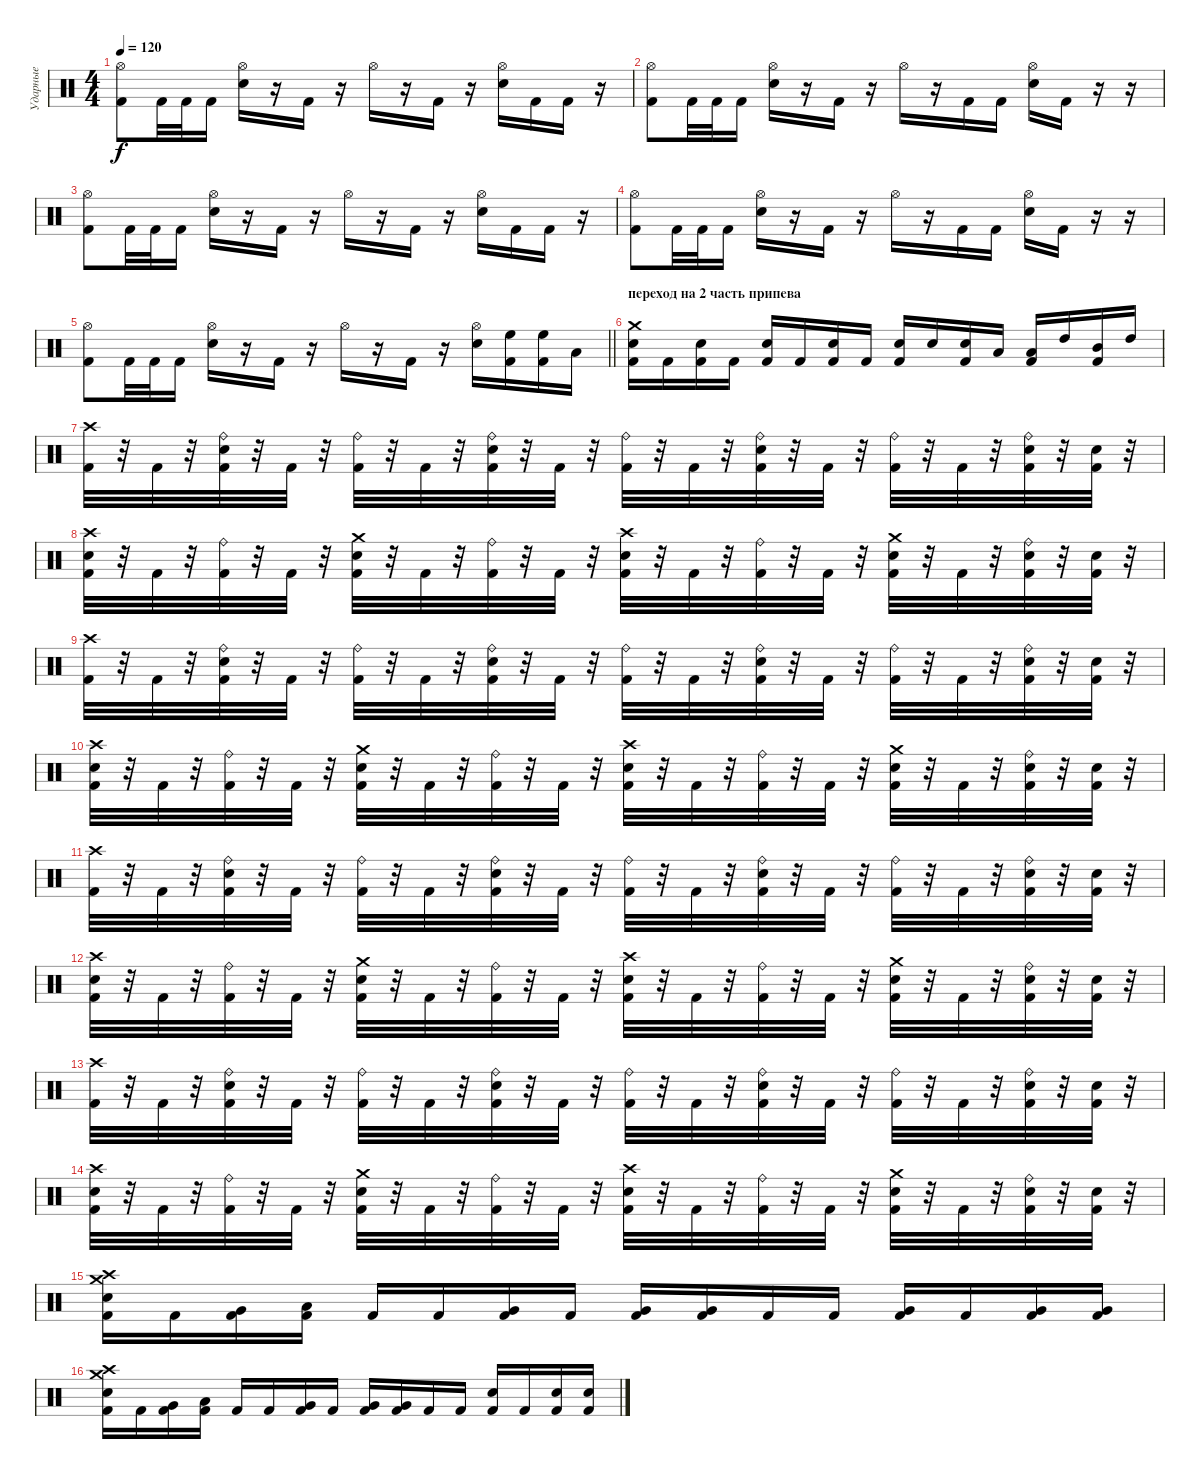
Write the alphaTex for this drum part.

\track ("Ударные" "Ударные") {instrument percussion}
\staff {score}
\articulation defaults
\ts (4 4)
\tempo 120
\clef neutral
\ks c
("Hi-Hat (open)" "Kick (hit) 2").8{dy f} "Kick (hit) 2".32 "Kick (hit) 2".32 "Kick (hit) 2".16 ("Hi-Hat (open)" "Snare (hit) 2").16 r.16 "Kick (hit) 2".16 r.16 "Hi-Hat (open)".16 r.16 "Kick (hit) 2".16 r.16 ("Hi-Hat (open)" "Snare (hit) 2").16 "Kick (hit) 2".16 "Kick (hit) 2".16 r.16 |
("Hi-Hat (open)" "Kick (hit) 2").8 "Kick (hit) 2".32 "Kick (hit) 2".32 "Kick (hit) 2".16 ("Hi-Hat (open)" "Snare (hit) 2").16 r.16 "Kick (hit) 2".16 r.16 "Hi-Hat (open)".16 r.16 "Kick (hit) 2".16 "Kick (hit) 2".16 ("Hi-Hat (open)" "Snare (hit) 2").16 "Kick (hit) 2".16 r.16 r.16 |
("Hi-Hat (open)" "Kick (hit) 2").8 "Kick (hit) 2".32 "Kick (hit) 2".32 "Kick (hit) 2".16 ("Hi-Hat (open)" "Snare (hit) 2").16 r.16 "Kick (hit) 2".16 r.16 "Hi-Hat (open)".16 r.16 "Kick (hit) 2".16 r.16 ("Hi-Hat (open)" "Snare (hit) 2").16 "Kick (hit) 2".16 "Kick (hit) 2".16 r.16 |
("Hi-Hat (open)" "Kick (hit) 2").8 "Kick (hit) 2".32 "Kick (hit) 2".32 "Kick (hit) 2".16 ("Hi-Hat (open)" "Snare (hit) 2").16 r.16 "Kick (hit) 2".16 r.16 "Hi-Hat (open)".16 r.16 "Kick (hit) 2".16 "Kick (hit) 2".16 ("Hi-Hat (open)" "Snare (hit) 2").16 "Kick (hit) 2".16 r.16 r.16 |
\barLineRight lightlight
("Hi-Hat (open)" "Kick (hit) 2").8 "Kick (hit) 2".32 "Kick (hit) 2".32 "Kick (hit) 2".16 ("Hi-Hat (open)" "Snare (hit) 2").16 r.16 "Kick (hit) 2".16 r.16 "Hi-Hat (open)".16 r.16 "Kick (hit) 2".16 r.16 ("Hi-Hat (open)" "Snare (hit) 2").16 ("High Floor Tom (hit)" "Kick (hit) 2").16 ("High Floor Tom (hit)" "Kick (hit) 2").16 "Low Tom (hit)".16 |
\section ("" "переход на 2 часть припева")
("Crash medium (hit)" "Snare (hit) 2" "Kick (hit) 2").16 "Kick (hit) 2".16 ("Snare (hit) 2" "Kick (hit) 2").16 "Kick (hit) 2".16 ("Snare (hit) 2" "Kick (hit) 2").16 "Kick (hit) 2".16 ("Snare (hit) 2" "Kick (hit) 2").16 "Kick (hit) 2".16 ("Snare (hit) 2" "Kick (hit) 2").16 "Snare (hit) 2".16 ("Snare (hit) 2" "Kick (hit) 2").16 "Low Tom (hit)".16 ("Low Tom (hit)" "Kick (hit) 2").16 "High Tom (hit)".16 ("Mid Tom (hit)" "Kick (hit) 2").16 "High Tom (hit)".16 |
("Crash high (hit)" "Kick (hit) 2").32 r.32 "Kick (hit) 2".32 r.32 ("Ride (bell)" "Snare (hit) 2" "Kick (hit) 2").32 r.32 "Kick (hit) 2".32 r.32 ("Ride (bell)" "Kick (hit) 2").32 r.32 "Kick (hit) 2".32 r.32 ("Ride (bell)" "Snare (hit) 2" "Kick (hit) 2").32 r.32 "Kick (hit) 2".32 r.32 ("Ride (bell)" "Kick (hit) 2").32 r.32 "Kick (hit) 2".32 r.32 ("Ride (bell)" "Snare (hit) 2" "Kick (hit) 2").32 r.32 "Kick (hit) 2".32 r.32 ("Ride (bell)" "Kick (hit) 2").32 r.32 "Kick (hit) 2".32 r.32 ("Ride (bell)" "Snare (hit) 2" "Kick (hit) 2").32 r.32 ("Snare (hit) 2" "Kick (hit) 2").32 r.32 |
("Crash high (hit)" "Snare (hit) 2" "Kick (hit) 2").32 r.32 "Kick (hit) 2".32 r.32 ("Ride (bell)" "Kick (hit) 2").32 r.32 "Kick (hit) 2".32 r.32 ("Crash medium (hit)" "Snare (hit) 2" "Kick (hit) 2").32 r.32 "Kick (hit) 2".32 r.32 ("Ride (bell)" "Kick (hit) 2").32 r.32 "Kick (hit) 2".32 r.32 ("Crash high (hit)" "Snare (hit) 2" "Kick (hit) 2").32 r.32 "Kick (hit) 2".32 r.32 ("Ride (bell)" "Kick (hit) 2").32 r.32 "Kick (hit) 2".32 r.32 ("Crash medium (hit)" "Snare (hit) 2" "Kick (hit) 2").32 r.32 "Kick (hit) 2".32 r.32 ("Ride (bell)" "Snare (hit) 2" "Kick (hit) 2").32 r.32 ("Snare (hit) 2" "Kick (hit) 2").32 r.32 |
("Crash high (hit)" "Kick (hit) 2").32 r.32 "Kick (hit) 2".32 r.32 ("Ride (bell)" "Snare (hit) 2" "Kick (hit) 2").32 r.32 "Kick (hit) 2".32 r.32 ("Ride (bell)" "Kick (hit) 2").32 r.32 "Kick (hit) 2".32 r.32 ("Ride (bell)" "Snare (hit) 2" "Kick (hit) 2").32 r.32 "Kick (hit) 2".32 r.32 ("Ride (bell)" "Kick (hit) 2").32 r.32 "Kick (hit) 2".32 r.32 ("Ride (bell)" "Snare (hit) 2" "Kick (hit) 2").32 r.32 "Kick (hit) 2".32 r.32 ("Ride (bell)" "Kick (hit) 2").32 r.32 "Kick (hit) 2".32 r.32 ("Ride (bell)" "Snare (hit) 2" "Kick (hit) 2").32 r.32 ("Snare (hit) 2" "Kick (hit) 2").32 r.32 |
("Crash high (hit)" "Snare (hit) 2" "Kick (hit) 2").32 r.32 "Kick (hit) 2".32 r.32 ("Ride (bell)" "Kick (hit) 2").32 r.32 "Kick (hit) 2".32 r.32 ("Crash medium (hit)" "Snare (hit) 2" "Kick (hit) 2").32 r.32 "Kick (hit) 2".32 r.32 ("Ride (bell)" "Kick (hit) 2").32 r.32 "Kick (hit) 2".32 r.32 ("Crash high (hit)" "Snare (hit) 2" "Kick (hit) 2").32 r.32 "Kick (hit) 2".32 r.32 ("Ride (bell)" "Kick (hit) 2").32 r.32 "Kick (hit) 2".32 r.32 ("Crash medium (hit)" "Snare (hit) 2" "Kick (hit) 2").32 r.32 "Kick (hit) 2".32 r.32 ("Ride (bell)" "Snare (hit) 2" "Kick (hit) 2").32 r.32 ("Snare (hit) 2" "Kick (hit) 2").32 r.32 |
("Crash high (hit)" "Kick (hit) 2").32 r.32 "Kick (hit) 2".32 r.32 ("Ride (bell)" "Snare (hit) 2" "Kick (hit) 2").32 r.32 "Kick (hit) 2".32 r.32 ("Ride (bell)" "Kick (hit) 2").32 r.32 "Kick (hit) 2".32 r.32 ("Ride (bell)" "Snare (hit) 2" "Kick (hit) 2").32 r.32 "Kick (hit) 2".32 r.32 ("Ride (bell)" "Kick (hit) 2").32 r.32 "Kick (hit) 2".32 r.32 ("Ride (bell)" "Snare (hit) 2" "Kick (hit) 2").32 r.32 "Kick (hit) 2".32 r.32 ("Ride (bell)" "Kick (hit) 2").32 r.32 "Kick (hit) 2".32 r.32 ("Ride (bell)" "Snare (hit) 2" "Kick (hit) 2").32 r.32 ("Snare (hit) 2" "Kick (hit) 2").32 r.32 |
("Crash high (hit)" "Snare (hit) 2" "Kick (hit) 2").32 r.32 "Kick (hit) 2".32 r.32 ("Ride (bell)" "Kick (hit) 2").32 r.32 "Kick (hit) 2".32 r.32 ("Crash medium (hit)" "Snare (hit) 2" "Kick (hit) 2").32 r.32 "Kick (hit) 2".32 r.32 ("Ride (bell)" "Kick (hit) 2").32 r.32 "Kick (hit) 2".32 r.32 ("Crash high (hit)" "Snare (hit) 2" "Kick (hit) 2").32 r.32 "Kick (hit) 2".32 r.32 ("Ride (bell)" "Kick (hit) 2").32 r.32 "Kick (hit) 2".32 r.32 ("Crash medium (hit)" "Snare (hit) 2" "Kick (hit) 2").32 r.32 "Kick (hit) 2".32 r.32 ("Ride (bell)" "Snare (hit) 2" "Kick (hit) 2").32 r.32 ("Snare (hit) 2" "Kick (hit) 2").32 r.32 |
("Crash high (hit)" "Kick (hit) 2").32 r.32 "Kick (hit) 2".32 r.32 ("Ride (bell)" "Snare (hit) 2" "Kick (hit) 2").32 r.32 "Kick (hit) 2".32 r.32 ("Ride (bell)" "Kick (hit) 2").32 r.32 "Kick (hit) 2".32 r.32 ("Ride (bell)" "Snare (hit) 2" "Kick (hit) 2").32 r.32 "Kick (hit) 2".32 r.32 ("Ride (bell)" "Kick (hit) 2").32 r.32 "Kick (hit) 2".32 r.32 ("Ride (bell)" "Snare (hit) 2" "Kick (hit) 2").32 r.32 "Kick (hit) 2".32 r.32 ("Ride (bell)" "Kick (hit) 2").32 r.32 "Kick (hit) 2".32 r.32 ("Ride (bell)" "Snare (hit) 2" "Kick (hit) 2").32 r.32 ("Snare (hit) 2" "Kick (hit) 2").32 r.32 |
("Crash high (hit)" "Snare (hit) 2" "Kick (hit) 2").32 r.32 "Kick (hit) 2".32 r.32 ("Ride (bell)" "Kick (hit) 2").32 r.32 "Kick (hit) 2".32 r.32 ("Crash medium (hit)" "Snare (hit) 2" "Kick (hit) 2").32 r.32 "Kick (hit) 2".32 r.32 ("Ride (bell)" "Kick (hit) 2").32 r.32 "Kick (hit) 2".32 r.32 ("Crash high (hit)" "Snare (hit) 2" "Kick (hit) 2").32 r.32 "Kick (hit) 2".32 r.32 ("Ride (bell)" "Kick (hit) 2").32 r.32 "Kick (hit) 2".32 r.32 ("Crash medium (hit)" "Snare (hit) 2" "Kick (hit) 2").32 r.32 "Kick (hit) 2".32 r.32 ("Ride (bell)" "Snare (hit) 2" "Kick (hit) 2").32 r.32 ("Snare (hit) 2" "Kick (hit) 2").32 r.32 |
("Crash medium (hit)" "Crash high (hit)" "Snare (hit) 2" "Kick (hit) 2").16 "Kick (hit) 2".16 ("Very Low Tom (hit)" "Kick (hit) 2").16 ("Low Tom (hit)" "Kick (hit) 2").16 "Kick (hit) 2".16 "Kick (hit) 2".16 ("Very Low Tom (hit)" "Kick (hit) 2").16 "Kick (hit) 2".16 ("Very Low Tom (hit)" "Kick (hit) 2").16 ("Very Low Tom (hit)" "Kick (hit) 2").16 "Kick (hit) 2".16 "Kick (hit) 2".16 ("Very Low Tom (hit)" "Kick (hit) 2").16 "Kick (hit) 2".16 ("Very Low Tom (hit)" "Kick (hit) 2").16 ("Very Low Tom (hit)" "Kick (hit) 2").16 |
("Crash medium (hit)" "Crash high (hit)" "Snare (hit) 2" "Kick (hit) 2").16 "Kick (hit) 2".16 ("Very Low Tom (hit)" "Kick (hit) 2").16 ("Low Tom (hit)" "Kick (hit) 2").16 "Kick (hit) 2".16 "Kick (hit) 2".16 ("Very Low Tom (hit)" "Kick (hit) 2").16 "Kick (hit) 2".16 ("Very Low Tom (hit)" "Kick (hit) 2").16 ("Very Low Tom (hit)" "Kick (hit) 2").16 "Kick (hit) 2".16 "Kick (hit) 2".16 ("Snare (hit) 2" "Kick (hit) 2").16 "Kick (hit) 2".16 ("Snare (hit) 2" "Kick (hit) 2").16 ("Snare (hit) 2" "Kick (hit) 2").16
